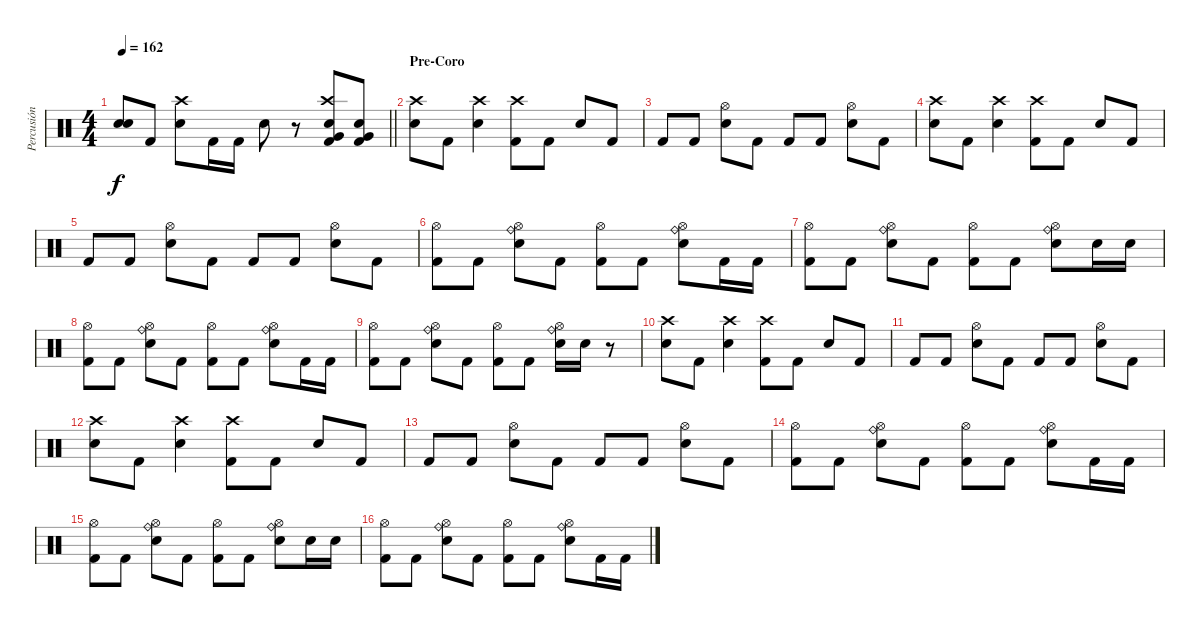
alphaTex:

\track ("Percusión" "Percusión") {instrument percussion}
\staff {score}
\articulation defaults
\ts (4 4)
\tempo 162
\clef neutral
\barLineRight lightlight
\ks c
("Snare (hit)"{t} "Snare (hit)"{t}).8{dy f} "Kick (hit) 2".8 ("Crash high (hit)" "Electric Snare (hit)").8 "Kick (hit) 2".16 "Kick (hit) 2".16 "Electric Snare (hit)".8 r.8 ("Crash high (hit)" "Very Low Tom (hit)" "Electric Snare (hit)" "Kick (hit) 2").8 ("Very Low Tom (hit)" "Electric Snare (hit)" "Kick (hit) 2").8 |
\section ("" "Pre-Coro")
("Crash high (hit)" "Electric Snare (hit)").8 "Kick (hit) 2".8 ("Crash high (hit)" "Electric Snare (hit)").4 ("Crash high (hit)" "Kick (hit) 2").8 "Kick (hit) 2".8 "Electric Snare (hit)".8 "Kick (hit) 2".8 |
"Kick (hit) 2".8 "Kick (hit) 2".8 ("Hi-Hat (open)" "Electric Snare (hit)").8 "Kick (hit) 2".8 "Kick (hit) 2".8 "Kick (hit) 2".8 ("Hi-Hat (open)" "Electric Snare (hit)").8 "Kick (hit) 2".8 |
("Crash high (hit)" "Electric Snare (hit)").8 "Kick (hit) 2".8 ("Crash high (hit)" "Electric Snare (hit)").4 ("Crash high (hit)" "Kick (hit) 2").8 "Kick (hit) 2".8 "Electric Snare (hit)".8 "Kick (hit) 2".8 |
"Kick (hit) 2".8 "Kick (hit) 2".8 ("Hi-Hat (open)" "Electric Snare (hit)").8 "Kick (hit) 2".8 "Kick (hit) 2".8 "Kick (hit) 2".8 ("Hi-Hat (open)" "Electric Snare (hit)").8 "Kick (hit) 2".8 |
("Hi-Hat (open)" "Kick (hit) 2").8 "Kick (hit) 2".8 ("Ride (bell)" "Hi-Hat (open)" "Electric Snare (hit)").8 "Kick (hit) 2".8 ("Hi-Hat (open)" "Kick (hit) 2").8 "Kick (hit) 2".8 ("Ride (bell)" "Hi-Hat (open)" "Electric Snare (hit)").8 "Kick (hit) 2".16 "Kick (hit) 2".16 |
("Hi-Hat (open)" "Kick (hit) 2").8 "Kick (hit) 2".8 ("Ride (bell)" "Hi-Hat (open)" "Electric Snare (hit)").8 "Kick (hit) 2".8 ("Hi-Hat (open)" "Kick (hit) 2").8 "Kick (hit) 2".8 ("Ride (bell)" "Hi-Hat (open)" "Electric Snare (hit)").8 "Electric Snare (hit)".16 "Electric Snare (hit)".16 |
("Hi-Hat (open)" "Kick (hit) 2").8 "Kick (hit) 2".8 ("Ride (bell)" "Hi-Hat (open)" "Electric Snare (hit)").8 "Kick (hit) 2".8 ("Hi-Hat (open)" "Kick (hit) 2").8 "Kick (hit) 2".8 ("Ride (bell)" "Hi-Hat (open)" "Electric Snare (hit)").8 "Kick (hit) 2".16 "Kick (hit) 2".16 |
("Hi-Hat (open)" "Kick (hit) 2").8 "Kick (hit) 2".8 ("Ride (bell)" "Hi-Hat (open)" "Electric Snare (hit)").8 "Kick (hit) 2".8 ("Hi-Hat (open)" "Kick (hit) 2").8 "Kick (hit) 2".8 ("Ride (bell)" "Hi-Hat (open)" "Electric Snare (hit)").16 "Electric Snare (hit)".16 r.8 |
("Crash high (hit)" "Electric Snare (hit)").8 "Kick (hit) 2".8 ("Crash high (hit)" "Electric Snare (hit)").4 ("Crash high (hit)" "Kick (hit) 2").8 "Kick (hit) 2".8 "Electric Snare (hit)".8 "Kick (hit) 2".8 |
"Kick (hit) 2".8 "Kick (hit) 2".8 ("Hi-Hat (open)" "Electric Snare (hit)").8 "Kick (hit) 2".8 "Kick (hit) 2".8 "Kick (hit) 2".8 ("Hi-Hat (open)" "Electric Snare (hit)").8 "Kick (hit) 2".8 |
("Crash high (hit)" "Electric Snare (hit)").8 "Kick (hit) 2".8 ("Crash high (hit)" "Electric Snare (hit)").4 ("Crash high (hit)" "Kick (hit) 2").8 "Kick (hit) 2".8 "Electric Snare (hit)".8 "Kick (hit) 2".8 |
"Kick (hit) 2".8 "Kick (hit) 2".8 ("Hi-Hat (open)" "Electric Snare (hit)").8 "Kick (hit) 2".8 "Kick (hit) 2".8 "Kick (hit) 2".8 ("Hi-Hat (open)" "Electric Snare (hit)").8 "Kick (hit) 2".8 |
("Hi-Hat (open)" "Kick (hit) 2").8 "Kick (hit) 2".8 ("Ride (bell)" "Hi-Hat (open)" "Electric Snare (hit)").8 "Kick (hit) 2".8 ("Hi-Hat (open)" "Kick (hit) 2").8 "Kick (hit) 2".8 ("Ride (bell)" "Hi-Hat (open)" "Electric Snare (hit)").8 "Kick (hit) 2".16 "Kick (hit) 2".16 |
("Hi-Hat (open)" "Kick (hit) 2").8 "Kick (hit) 2".8 ("Ride (bell)" "Hi-Hat (open)" "Electric Snare (hit)").8 "Kick (hit) 2".8 ("Hi-Hat (open)" "Kick (hit) 2").8 "Kick (hit) 2".8 ("Ride (bell)" "Hi-Hat (open)" "Electric Snare (hit)").8 "Electric Snare (hit)".16 "Electric Snare (hit)".16 |
("Hi-Hat (open)" "Kick (hit) 2").8 "Kick (hit) 2".8 ("Ride (bell)" "Hi-Hat (open)" "Electric Snare (hit)").8 "Kick (hit) 2".8 ("Hi-Hat (open)" "Kick (hit) 2").8 "Kick (hit) 2".8 ("Ride (bell)" "Hi-Hat (open)" "Electric Snare (hit)").8 "Kick (hit) 2".16 "Kick (hit) 2".16
